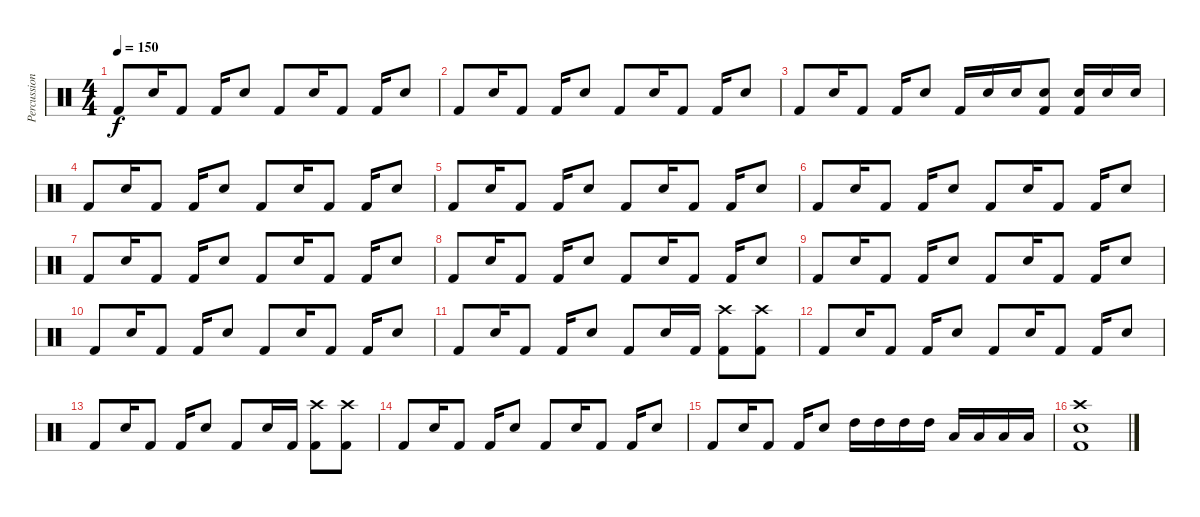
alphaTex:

\track ("Percussion" "Percussion") {instrument percussion}
\staff {score}
\articulation defaults
\ts (4 4)
\tempo 150
\clef neutral
\ks c "Kick (hit) 2".8{dy f} "Snare (hit) 2".16 "Kick (hit) 2".8 "Kick (hit) 2".16 "Snare (hit) 2".8 "Kick (hit) 2".8 "Snare (hit) 2".16 "Kick (hit) 2".8 "Kick (hit) 2".16 "Snare (hit) 2".8
|
"Kick (hit) 2".8 "Snare (hit) 2".16 "Kick (hit) 2".8 "Kick (hit) 2".16 "Snare (hit) 2".8 "Kick (hit) 2".8 "Snare (hit) 2".16 "Kick (hit) 2".8 "Kick (hit) 2".16 "Snare (hit) 2".8 |
"Kick (hit) 2".8 "Snare (hit) 2".16 "Kick (hit) 2".8 "Kick (hit) 2".16 "Snare (hit) 2".8 "Kick (hit) 2".16 "Snare (hit) 2".16 "Snare (hit) 2".16 ("Snare (hit) 2" "Kick (hit) 2").8 ("Snare (hit) 2" "Kick (hit) 2").16 "Snare (hit) 2".16 "Snare (hit) 2".16 |
"Kick (hit) 2".8 "Snare (hit) 2".16 "Kick (hit) 2".8 "Kick (hit) 2".16 "Snare (hit) 2".8 "Kick (hit) 2".8 "Snare (hit) 2".16 "Kick (hit) 2".8 "Kick (hit) 2".16 "Snare (hit) 2".8 |
"Kick (hit) 2".8 "Snare (hit) 2".16 "Kick (hit) 2".8 "Kick (hit) 2".16 "Snare (hit) 2".8 "Kick (hit) 2".8 "Snare (hit) 2".16 "Kick (hit) 2".8 "Kick (hit) 2".16 "Snare (hit) 2".8 |
"Kick (hit) 2".8 "Snare (hit) 2".16 "Kick (hit) 2".8 "Kick (hit) 2".16 "Snare (hit) 2".8 "Kick (hit) 2".8 "Snare (hit) 2".16 "Kick (hit) 2".8 "Kick (hit) 2".16 "Snare (hit) 2".8 |
"Kick (hit) 2".8 "Snare (hit) 2".16 "Kick (hit) 2".8 "Kick (hit) 2".16 "Snare (hit) 2".8 "Kick (hit) 2".8 "Snare (hit) 2".16 "Kick (hit) 2".8 "Kick (hit) 2".16 "Snare (hit) 2".8 |
"Kick (hit) 2".8 "Snare (hit) 2".16 "Kick (hit) 2".8 "Kick (hit) 2".16 "Snare (hit) 2".8 "Kick (hit) 2".8 "Snare (hit) 2".16 "Kick (hit) 2".8 "Kick (hit) 2".16 "Snare (hit) 2".8 |
"Kick (hit) 2".8 "Snare (hit) 2".16 "Kick (hit) 2".8 "Kick (hit) 2".16 "Snare (hit) 2".8 "Kick (hit) 2".8 "Snare (hit) 2".16 "Kick (hit) 2".8 "Kick (hit) 2".16 "Snare (hit) 2".8 |
"Kick (hit) 2".8 "Snare (hit) 2".16 "Kick (hit) 2".8 "Kick (hit) 2".16 "Snare (hit) 2".8 "Kick (hit) 2".8 "Snare (hit) 2".16 "Kick (hit) 2".8 "Kick (hit) 2".16 "Snare (hit) 2".8 |
"Kick (hit) 2".8 "Snare (hit) 2".16 "Kick (hit) 2".8 "Kick (hit) 2".16 "Snare (hit) 2".8 "Kick (hit) 2".8 "Snare (hit) 2".16 "Kick (hit) 2".16 ("Crash high (hit)" "Kick (hit) 2").8 ("Crash high (hit)" "Kick (hit) 2").8 |
"Kick (hit) 2".8 "Snare (hit) 2".16 "Kick (hit) 2".8 "Kick (hit) 2".16 "Snare (hit) 2".8 "Kick (hit) 2".8 "Snare (hit) 2".16 "Kick (hit) 2".8 "Kick (hit) 2".16 "Snare (hit) 2".8 |
"Kick (hit) 2".8 "Snare (hit) 2".16 "Kick (hit) 2".8 "Kick (hit) 2".16 "Snare (hit) 2".8 "Kick (hit) 2".8 "Snare (hit) 2".16 "Kick (hit) 2".16 ("Crash high (hit)" "Kick (hit) 2").8 ("Crash high (hit)" "Kick (hit) 2").8 |
"Kick (hit) 2".8 "Snare (hit) 2".16 "Kick (hit) 2".8 "Kick (hit) 2".16 "Snare (hit) 2".8 "Kick (hit) 2".8 "Snare (hit) 2".16 "Kick (hit) 2".8 "Kick (hit) 2".16 "Snare (hit) 2".8 |
"Kick (hit) 2".8 "Snare (hit) 2".16 "Kick (hit) 2".8 "Kick (hit) 2".16 "Snare (hit) 2".8 "High Tom (hit)".16 "High Tom (hit)".16 "High Tom (hit)".16 "High Tom (hit)".16 "Low Tom (hit)".16 "Low Tom (hit)".16 "Low Tom (hit)".16 "Low Tom (hit)".16 |
("Crash high (hit)" "Snare (hit) 2" "Kick (hit) 2").1
